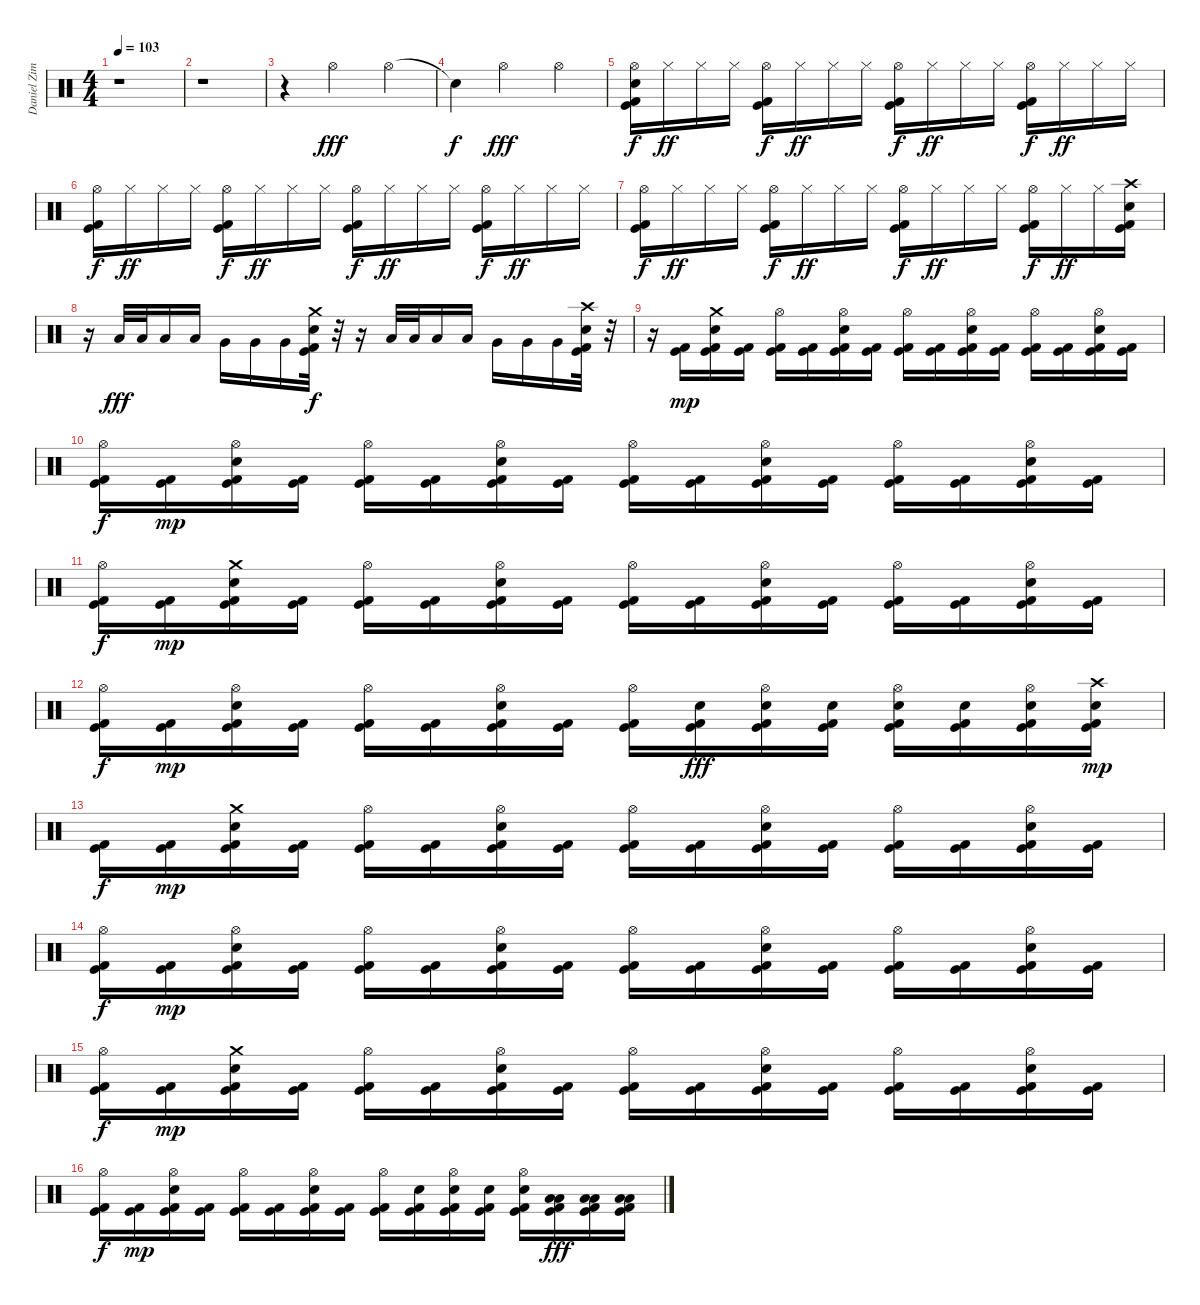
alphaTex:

\track ("Daniel Zimmermann - Drums" "Daniel Zim") {instrument percussion}
\staff {score}
\articulation defaults
\ts (4 4)
\tempo 103
\clef neutral
\ks c
r.1{dy fff} |
r.1 |
r.4 "Hi-Hat (open)".2 "Hi-Hat (open)".4 |
"Snare (hit)"{t}.4{dy f} "Hi-Hat (open)".2{dy fff} "Hi-Hat (open)".4 |
("Kick (hit)" "Kick (hit) 2" "Hi-Hat (open)" "Snare (hit)").16{dy f} "Hi-Hat (closed)".16{dy ff} "Hi-Hat (closed)".16 "Hi-Hat (closed)".16 ("Kick (hit)" "Kick (hit) 2" "Hi-Hat (open)").16{dy f} "Hi-Hat (closed)".16{dy ff} "Hi-Hat (closed)".16 "Hi-Hat (closed)".16 ("Kick (hit)" "Kick (hit) 2" "Hi-Hat (open)").16{dy f} "Hi-Hat (closed)".16{dy ff} "Hi-Hat (closed)".16 "Hi-Hat (closed)".16 ("Kick (hit)" "Kick (hit) 2" "Hi-Hat (open)").16{dy f} "Hi-Hat (closed)".16{dy ff} "Hi-Hat (closed)".16 "Hi-Hat (closed)".16 |
("Kick (hit)" "Kick (hit) 2" "Hi-Hat (open)").16{dy f} "Hi-Hat (closed)".16{dy ff} "Hi-Hat (closed)".16 "Hi-Hat (closed)".16 ("Kick (hit)" "Kick (hit) 2" "Hi-Hat (open)").16{dy f} "Hi-Hat (closed)".16{dy ff} "Hi-Hat (closed)".16 "Hi-Hat (closed)".16 ("Kick (hit)" "Kick (hit) 2" "Hi-Hat (open)").16{dy f} "Hi-Hat (closed)".16{dy ff} "Hi-Hat (closed)".16 "Hi-Hat (closed)".16 ("Kick (hit)" "Kick (hit) 2" "Hi-Hat (open)").16{dy f} "Hi-Hat (closed)".16{dy ff} "Hi-Hat (closed)".16 "Hi-Hat (closed)".16 |
("Kick (hit)" "Kick (hit) 2" "Hi-Hat (open)").16{dy f} "Hi-Hat (closed)".16{dy ff} "Hi-Hat (closed)".16 "Hi-Hat (closed)".16 ("Kick (hit)" "Kick (hit) 2" "Hi-Hat (open)").16{dy f} "Hi-Hat (closed)".16{dy ff} "Hi-Hat (closed)".16 "Hi-Hat (closed)".16 ("Kick (hit)" "Kick (hit) 2" "Hi-Hat (open)").16{dy f} "Hi-Hat (closed)".16{dy ff} "Hi-Hat (closed)".16 "Hi-Hat (closed)".16 ("Kick (hit)" "Kick (hit) 2" "Hi-Hat (open)").16{dy f} "Hi-Hat (closed)".16{dy ff} "Hi-Hat (closed)".16 ("Kick (hit)" "Kick (hit) 2" "Electric Snare (hit)" "Crash high (hit)").16 |
r.16 "Low Tom (hit)".32{dy fff} "Low Tom (hit)".32 "Low Tom (hit)".16 "Low Tom (hit)".16 "Very Low Tom (hit)".16 "Very Low Tom (hit)".16 "Very Low Tom (hit)".16 ("Kick (hit)" "Kick (hit) 2" "Electric Snare (hit)" "Crash medium (hit)").32{dy f} r.32 r.16 "Low Tom (hit)".32 "Low Tom (hit)".32 "Low Tom (hit)".16 "Low Tom (hit)".16 "Very Low Tom (hit)".16 "Very Low Tom (hit)".16 "Very Low Tom (hit)".16 ("Kick (hit)" "Kick (hit) 2" "Electric Snare (hit)" "Crash high (hit)").32 r.32 |
r.16 ("Kick (hit)" "Kick (hit) 2").16{dy mp} ("Kick (hit)" "Kick (hit) 2" "Electric Snare (hit)" "Crash medium (hit)").16 ("Kick (hit)" "Kick (hit) 2").16 ("Kick (hit)" "Kick (hit) 2" "Hi-Hat (open)").16 ("Kick (hit)" "Kick (hit) 2").16 ("Kick (hit)" "Kick (hit) 2" "Electric Snare (hit)" "Hi-Hat (open)").16 ("Kick (hit)" "Kick (hit) 2").16 ("Kick (hit)" "Kick (hit) 2" "Hi-Hat (open)").16 ("Kick (hit)" "Kick (hit) 2").16 ("Kick (hit)" "Kick (hit) 2" "Electric Snare (hit)" "Hi-Hat (open)").16 ("Kick (hit)" "Kick (hit) 2").16 ("Kick (hit)" "Kick (hit) 2" "Hi-Hat (open)").16 ("Kick (hit)" "Kick (hit) 2").16 ("Kick (hit)" "Kick (hit) 2" "Electric Snare (hit)" "Hi-Hat (open)").16 ("Kick (hit)" "Kick (hit) 2").16 |
("Kick (hit)" "Kick (hit) 2" "Hi-Hat (open)").16{dy f} ("Kick (hit)" "Kick (hit) 2").16{dy mp} ("Kick (hit)" "Kick (hit) 2" "Electric Snare (hit)" "Hi-Hat (open)").16 ("Kick (hit)" "Kick (hit) 2").16 ("Kick (hit)" "Kick (hit) 2" "Hi-Hat (open)").16 ("Kick (hit)" "Kick (hit) 2").16 ("Kick (hit)" "Kick (hit) 2" "Electric Snare (hit)" "Hi-Hat (open)").16 ("Kick (hit)" "Kick (hit) 2").16 ("Kick (hit)" "Kick (hit) 2" "Hi-Hat (open)").16 ("Kick (hit)" "Kick (hit) 2").16 ("Kick (hit)" "Kick (hit) 2" "Electric Snare (hit)" "Hi-Hat (open)").16 ("Kick (hit)" "Kick (hit) 2").16 ("Kick (hit)" "Kick (hit) 2" "Hi-Hat (open)").16 ("Kick (hit)" "Kick (hit) 2").16 ("Kick (hit)" "Kick (hit) 2" "Electric Snare (hit)" "Hi-Hat (open)").16 ("Kick (hit)" "Kick (hit) 2").16 |
("Kick (hit)" "Kick (hit) 2" "Hi-Hat (open)").16{dy f} ("Kick (hit)" "Kick (hit) 2").16{dy mp} ("Kick (hit)" "Kick (hit) 2" "Electric Snare (hit)" "Crash medium (hit)").16 ("Kick (hit)" "Kick (hit) 2").16 ("Kick (hit)" "Kick (hit) 2" "Hi-Hat (open)").16 ("Kick (hit)" "Kick (hit) 2").16 ("Kick (hit)" "Kick (hit) 2" "Electric Snare (hit)" "Hi-Hat (open)").16 ("Kick (hit)" "Kick (hit) 2").16 ("Kick (hit)" "Kick (hit) 2" "Hi-Hat (open)").16 ("Kick (hit)" "Kick (hit) 2").16 ("Kick (hit)" "Kick (hit) 2" "Electric Snare (hit)" "Hi-Hat (open)").16 ("Kick (hit)" "Kick (hit) 2").16 ("Kick (hit)" "Kick (hit) 2" "Hi-Hat (open)").16 ("Kick (hit)" "Kick (hit) 2").16 ("Kick (hit)" "Kick (hit) 2" "Electric Snare (hit)" "Hi-Hat (open)").16 ("Kick (hit)" "Kick (hit) 2").16 |
("Kick (hit)" "Kick (hit) 2" "Hi-Hat (open)").16{dy f} ("Kick (hit)" "Kick (hit) 2").16{dy mp} ("Kick (hit)" "Kick (hit) 2" "Electric Snare (hit)" "Hi-Hat (open)").16 ("Kick (hit)" "Kick (hit) 2").16 ("Kick (hit)" "Kick (hit) 2" "Hi-Hat (open)").16 ("Kick (hit)" "Kick (hit) 2").16 ("Kick (hit)" "Kick (hit) 2" "Electric Snare (hit)" "Hi-Hat (open)").16 ("Kick (hit)" "Kick (hit) 2").16 ("Kick (hit)" "Kick (hit) 2" "Hi-Hat (open)").16 ("Kick (hit)" "Kick (hit) 2" "Electric Snare (hit)").16{dy fff} ("Kick (hit)" "Kick (hit) 2" "Electric Snare (hit)" "Hi-Hat (open)").16 ("Kick (hit)" "Kick (hit) 2" "Electric Snare (hit)").16 ("Kick (hit)" "Kick (hit) 2" "Electric Snare (hit)" "Hi-Hat (open)").16 ("Kick (hit)" "Kick (hit) 2" "Electric Snare (hit)").16 ("Kick (hit)" "Kick (hit) 2" "Electric Snare (hit)" "Hi-Hat (open)").16 ("Kick (hit)" "Kick (hit) 2" "Electric Snare (hit)" "Crash high (hit)").16{dy mp} |
("Kick (hit)" "Kick (hit) 2").16{dy f} ("Kick (hit)" "Kick (hit) 2").16{dy mp} ("Kick (hit)" "Kick (hit) 2" "Electric Snare (hit)" "Crash medium (hit)").16 ("Kick (hit)" "Kick (hit) 2").16 ("Kick (hit)" "Kick (hit) 2" "Hi-Hat (open)").16 ("Kick (hit)" "Kick (hit) 2").16 ("Kick (hit)" "Kick (hit) 2" "Electric Snare (hit)" "Hi-Hat (open)").16 ("Kick (hit)" "Kick (hit) 2").16 ("Kick (hit)" "Kick (hit) 2" "Hi-Hat (open)").16 ("Kick (hit)" "Kick (hit) 2").16 ("Kick (hit)" "Kick (hit) 2" "Electric Snare (hit)" "Hi-Hat (open)").16 ("Kick (hit)" "Kick (hit) 2").16 ("Kick (hit)" "Kick (hit) 2" "Hi-Hat (open)").16 ("Kick (hit)" "Kick (hit) 2").16 ("Kick (hit)" "Kick (hit) 2" "Electric Snare (hit)" "Hi-Hat (open)").16 ("Kick (hit)" "Kick (hit) 2").16 |
("Kick (hit)" "Kick (hit) 2" "Hi-Hat (open)").16{dy f} ("Kick (hit)" "Kick (hit) 2").16{dy mp} ("Kick (hit)" "Kick (hit) 2" "Electric Snare (hit)" "Hi-Hat (open)").16 ("Kick (hit)" "Kick (hit) 2").16 ("Kick (hit)" "Kick (hit) 2" "Hi-Hat (open)").16 ("Kick (hit)" "Kick (hit) 2").16 ("Kick (hit)" "Kick (hit) 2" "Electric Snare (hit)" "Hi-Hat (open)").16 ("Kick (hit)" "Kick (hit) 2").16 ("Kick (hit)" "Kick (hit) 2" "Hi-Hat (open)").16 ("Kick (hit)" "Kick (hit) 2").16 ("Kick (hit)" "Kick (hit) 2" "Electric Snare (hit)" "Hi-Hat (open)").16 ("Kick (hit)" "Kick (hit) 2").16 ("Kick (hit)" "Kick (hit) 2" "Hi-Hat (open)").16 ("Kick (hit)" "Kick (hit) 2").16 ("Kick (hit)" "Kick (hit) 2" "Electric Snare (hit)" "Hi-Hat (open)").16 ("Kick (hit)" "Kick (hit) 2").16 |
("Kick (hit)" "Kick (hit) 2" "Hi-Hat (open)").16{dy f} ("Kick (hit)" "Kick (hit) 2").16{dy mp} ("Kick (hit)" "Kick (hit) 2" "Electric Snare (hit)" "Crash medium (hit)").16 ("Kick (hit)" "Kick (hit) 2").16 ("Kick (hit)" "Kick (hit) 2" "Hi-Hat (open)").16 ("Kick (hit)" "Kick (hit) 2").16 ("Kick (hit)" "Kick (hit) 2" "Electric Snare (hit)" "Hi-Hat (open)").16 ("Kick (hit)" "Kick (hit) 2").16 ("Kick (hit)" "Kick (hit) 2" "Hi-Hat (open)").16 ("Kick (hit)" "Kick (hit) 2").16 ("Kick (hit)" "Kick (hit) 2" "Electric Snare (hit)" "Hi-Hat (open)").16 ("Kick (hit)" "Kick (hit) 2").16 ("Kick (hit)" "Kick (hit) 2" "Hi-Hat (open)").16 ("Kick (hit)" "Kick (hit) 2").16 ("Kick (hit)" "Kick (hit) 2" "Electric Snare (hit)" "Hi-Hat (open)").16 ("Kick (hit)" "Kick (hit) 2").16 |
("Kick (hit)" "Kick (hit) 2" "Hi-Hat (open)").16{dy f} ("Kick (hit)" "Kick (hit) 2").16{dy mp} ("Kick (hit)" "Kick (hit) 2" "Electric Snare (hit)" "Hi-Hat (open)").16 ("Kick (hit)" "Kick (hit) 2").16 ("Kick (hit)" "Kick (hit) 2" "Hi-Hat (open)").16 ("Kick (hit)" "Kick (hit) 2").16 ("Kick (hit)" "Kick (hit) 2" "Electric Snare (hit)" "Hi-Hat (open)").16 ("Kick (hit)" "Kick (hit) 2").16 ("Kick (hit)" "Kick (hit) 2" "Hi-Hat (open)").16 ("Kick (hit)" "Kick (hit) 2" "Electric Snare (hit)").16 ("Kick (hit)" "Kick (hit) 2" "Electric Snare (hit)" "Hi-Hat (open)").16 ("Kick (hit)" "Kick (hit) 2" "Electric Snare (hit)").16 ("Kick (hit)" "Kick (hit) 2" "Electric Snare (hit)" "Hi-Hat (open)").16 ("Kick (hit)" "Kick (hit) 2" "Low Tom (hit)" "Low Tom (hit)").16{dy fff} ("Kick (hit)" "Kick (hit) 2" "Low Tom (hit)" "Low Tom (hit)").16 ("Kick (hit)" "Kick (hit) 2" "Low Tom (hit)" "Low Tom (hit)").16
